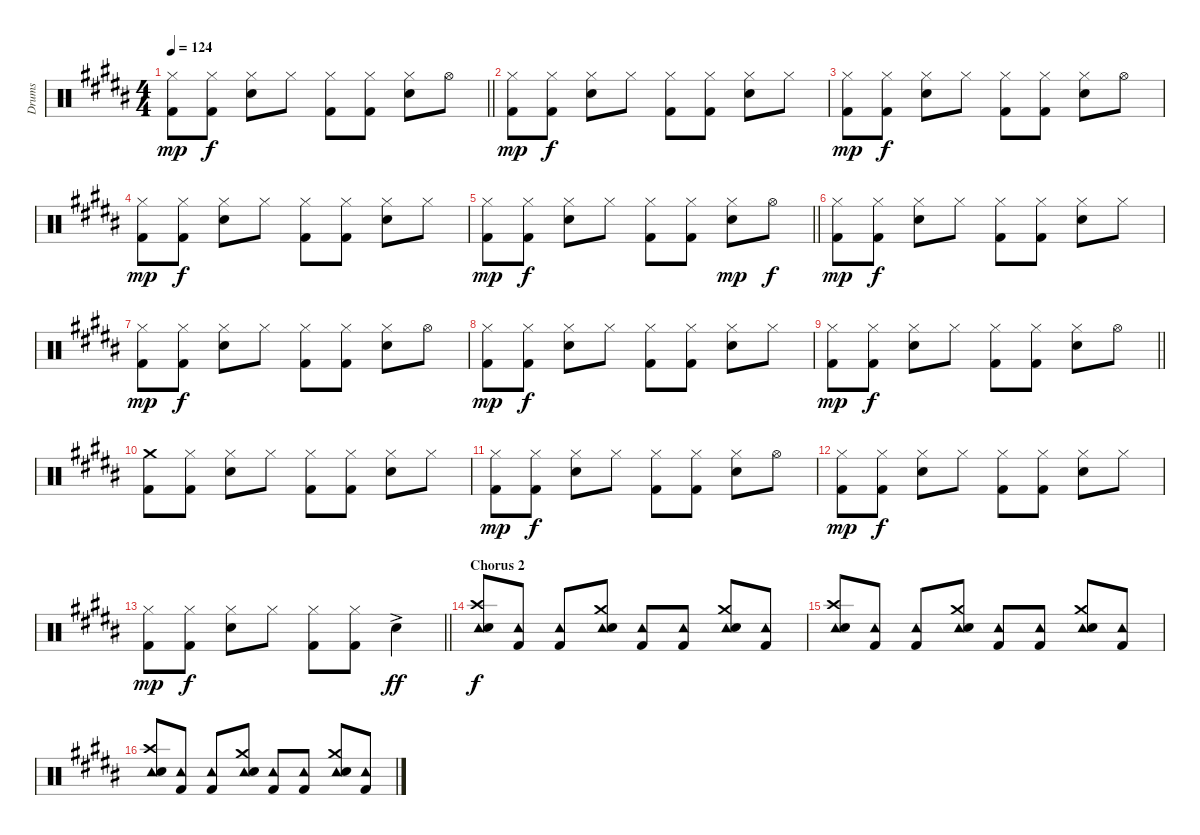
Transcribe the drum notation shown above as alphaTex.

\track ("Drums" "Drums") {instrument percussion}
\staff {score}
\articulation defaults
\ts (4 4)
\tempo 124
\clef neutral
\barLineRight lightlight
\ks b
("Hi-Hat (closed)" "Kick (hit) 2").8{dy mp} ("Hi-Hat (closed)" "Kick (hit) 2").8{dy f} ("Hi-Hat (closed)" "Snare (hit) 2").8 "Hi-Hat (closed)".8 ("Hi-Hat (closed)" "Kick (hit) 2").8 ("Hi-Hat (closed)" "Kick (hit) 2").8 ("Hi-Hat (closed)" "Snare (hit) 2").8 "Hi-Hat (open)".8 |
("Hi-Hat (closed)" "Kick (hit) 2").8{dy mp} ("Hi-Hat (closed)" "Kick (hit) 2").8{dy f} ("Hi-Hat (closed)" "Snare (hit) 2").8 "Hi-Hat (closed)".8 ("Hi-Hat (closed)" "Kick (hit) 2").8 ("Hi-Hat (closed)" "Kick (hit) 2").8 ("Hi-Hat (closed)" "Snare (hit) 2").8 "Hi-Hat (closed)".8 |
("Hi-Hat (closed)" "Kick (hit) 2").8{dy mp} ("Hi-Hat (closed)" "Kick (hit) 2").8{dy f} ("Hi-Hat (closed)" "Snare (hit) 2").8 "Hi-Hat (closed)".8 ("Hi-Hat (closed)" "Kick (hit) 2").8 ("Hi-Hat (closed)" "Kick (hit) 2").8 ("Hi-Hat (closed)" "Snare (hit) 2").8 "Hi-Hat (open)".8 |
("Hi-Hat (closed)" "Kick (hit) 2").8{dy mp} ("Hi-Hat (closed)" "Kick (hit) 2").8{dy f} ("Hi-Hat (closed)" "Snare (hit) 2").8 "Hi-Hat (closed)".8 ("Hi-Hat (closed)" "Kick (hit) 2").8 ("Hi-Hat (closed)" "Kick (hit) 2").8 ("Hi-Hat (closed)" "Snare (hit) 2").8 "Hi-Hat (closed)".8 |
\barLineRight lightlight
("Hi-Hat (closed)" "Kick (hit) 2").8{dy mp} ("Hi-Hat (closed)" "Kick (hit) 2").8{dy f} ("Hi-Hat (closed)" "Snare (hit) 2").8 "Hi-Hat (closed)".8 ("Hi-Hat (closed)" "Kick (hit) 2").8 ("Hi-Hat (closed)" "Kick (hit) 2").8 ("Hi-Hat (closed)" "Snare (hit) 2").8{dy mp} "Hi-Hat (open)".8{dy f} |
("Hi-Hat (closed)" "Kick (hit) 2").8{dy mp} ("Hi-Hat (closed)" "Kick (hit) 2").8{dy f} ("Hi-Hat (closed)" "Snare (hit) 2").8 "Hi-Hat (closed)".8 ("Hi-Hat (closed)" "Kick (hit) 2").8 ("Hi-Hat (closed)" "Kick (hit) 2").8 ("Hi-Hat (closed)" "Snare (hit) 2").8 "Hi-Hat (closed)".8 |
("Hi-Hat (closed)" "Kick (hit) 2").8{dy mp} ("Hi-Hat (closed)" "Kick (hit) 2").8{dy f} ("Hi-Hat (closed)" "Snare (hit) 2").8 "Hi-Hat (closed)".8 ("Hi-Hat (closed)" "Kick (hit) 2").8 ("Hi-Hat (closed)" "Kick (hit) 2").8 ("Hi-Hat (closed)" "Snare (hit) 2").8 "Hi-Hat (open)".8 |
("Hi-Hat (closed)" "Kick (hit) 2").8{dy mp} ("Hi-Hat (closed)" "Kick (hit) 2").8{dy f} ("Hi-Hat (closed)" "Snare (hit) 2").8 "Hi-Hat (closed)".8 ("Hi-Hat (closed)" "Kick (hit) 2").8 ("Hi-Hat (closed)" "Kick (hit) 2").8 ("Hi-Hat (closed)" "Snare (hit) 2").8 "Hi-Hat (closed)".8 |
\barLineRight lightlight
("Hi-Hat (closed)" "Kick (hit) 2").8{dy mp} ("Hi-Hat (closed)" "Kick (hit) 2").8{dy f} ("Hi-Hat (closed)" "Snare (hit) 2").8 "Hi-Hat (closed)".8 ("Hi-Hat (closed)" "Kick (hit) 2").8 ("Hi-Hat (closed)" "Kick (hit) 2").8 ("Hi-Hat (closed)" "Snare (hit) 2").8 "Hi-Hat (open)".8 |
("Crash medium (hit)" "Kick (hit) 2").8 ("Hi-Hat (closed)" "Kick (hit) 2").8 ("Hi-Hat (closed)" "Snare (hit) 2").8 "Hi-Hat (closed)".8 ("Hi-Hat (closed)" "Kick (hit) 2").8 ("Hi-Hat (closed)" "Kick (hit) 2").8 ("Hi-Hat (closed)" "Snare (hit) 2").8 "Hi-Hat (closed)".8 |
("Hi-Hat (closed)" "Kick (hit) 2").8{dy mp} ("Hi-Hat (closed)" "Kick (hit) 2").8{dy f} ("Hi-Hat (closed)" "Snare (hit) 2").8 "Hi-Hat (closed)".8 ("Hi-Hat (closed)" "Kick (hit) 2").8 ("Hi-Hat (closed)" "Kick (hit) 2").8 ("Hi-Hat (closed)" "Snare (hit) 2").8 "Hi-Hat (open)".8 |
("Hi-Hat (closed)" "Kick (hit) 2").8{dy mp} ("Hi-Hat (closed)" "Kick (hit) 2").8{dy f} ("Hi-Hat (closed)" "Snare (hit) 2").8 "Hi-Hat (closed)".8 ("Hi-Hat (closed)" "Kick (hit) 2").8 ("Hi-Hat (closed)" "Kick (hit) 2").8 ("Hi-Hat (closed)" "Snare (hit) 2").8 "Hi-Hat (closed)".8 |
\barLineRight lightlight
("Hi-Hat (closed)" "Kick (hit) 2").8{dy mp} ("Hi-Hat (closed)" "Kick (hit) 2").8{dy f} ("Hi-Hat (closed)" "Snare (hit) 2").8 "Hi-Hat (closed)".8 ("Hi-Hat (closed)" "Kick (hit) 2").8 ("Hi-Hat (closed)" "Kick (hit) 2").8 "Snare (hit) 2"{ac}.4{dy ff} |
\section ("" "Chorus 2")
("Crash high (hit)" "Tambourine (hit)" "Snare (hit) 2").8{dy f} ("Tambourine (hit)" "Kick (hit) 2").8 ("Tambourine (hit)" "Kick (hit) 2").8 ("Crash medium (hit)" "Tambourine (hit)" "Snare (hit) 2").8 ("Tambourine (hit)" "Kick (hit) 2").8 ("Tambourine (hit)" "Kick (hit) 2").8 ("Crash medium (hit)" "Tambourine (hit)" "Snare (hit) 2").8 ("Tambourine (hit)" "Kick (hit) 2").8 |
("Crash high (hit)" "Tambourine (hit)" "Snare (hit) 2").8 ("Tambourine (hit)" "Kick (hit) 2").8 ("Tambourine (hit)" "Kick (hit) 2").8 ("Crash medium (hit)" "Tambourine (hit)" "Snare (hit) 2").8 ("Tambourine (hit)" "Kick (hit) 2").8 ("Tambourine (hit)" "Kick (hit) 2").8 ("Crash medium (hit)" "Tambourine (hit)" "Snare (hit) 2").8 ("Tambourine (hit)" "Kick (hit) 2").8 |
("Crash high (hit)" "Tambourine (hit)" "Snare (hit) 2").8 ("Tambourine (hit)" "Kick (hit) 2").8 ("Tambourine (hit)" "Kick (hit) 2").8 ("Crash medium (hit)" "Tambourine (hit)" "Snare (hit) 2").8 ("Tambourine (hit)" "Kick (hit) 2").8 ("Tambourine (hit)" "Kick (hit) 2").8 ("Crash medium (hit)" "Tambourine (hit)" "Snare (hit) 2").8 ("Tambourine (hit)" "Kick (hit) 2").8
